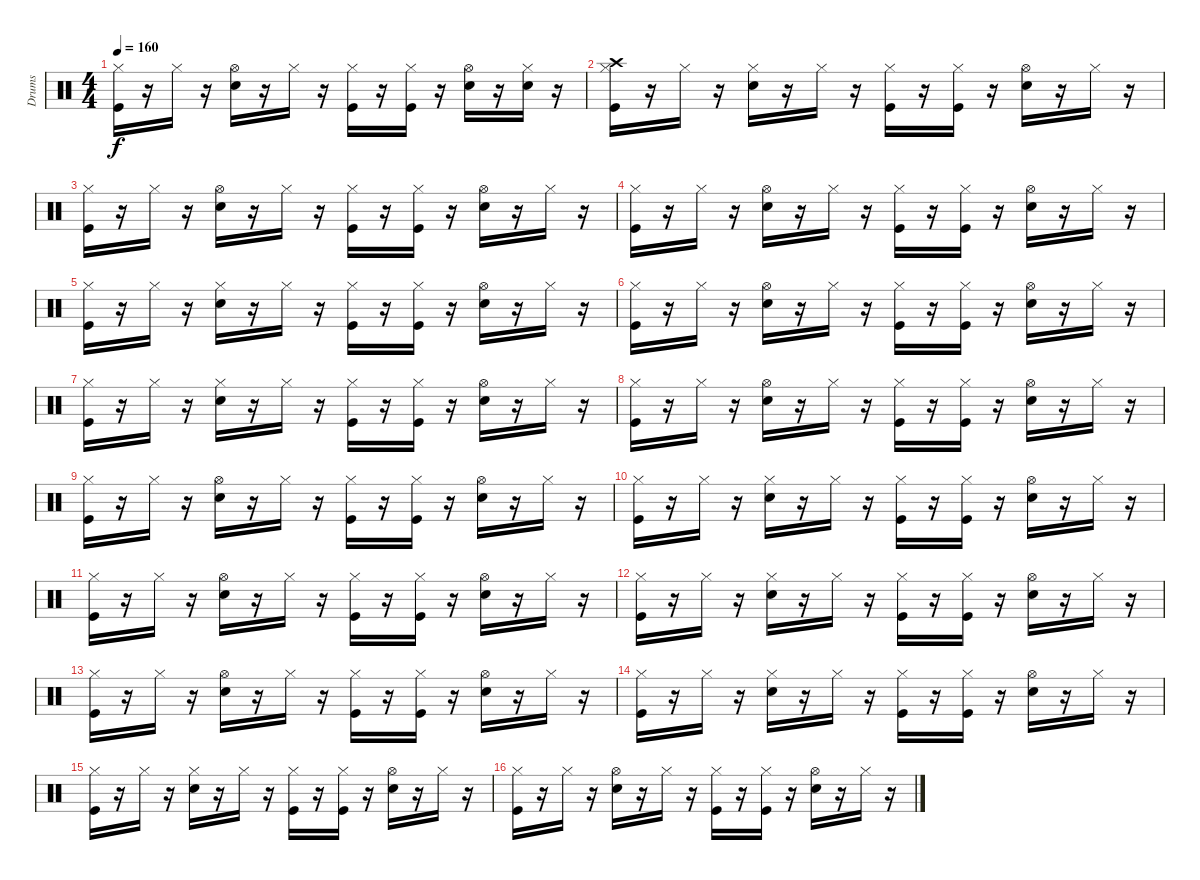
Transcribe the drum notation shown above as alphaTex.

\track ("Drums" "Drums") {instrument percussion}
\staff {score}
\articulation defaults
\ts (4 4)
\tempo 160
\clef neutral
\ks c
("Hi-Hat (closed)" "Kick (hit)").16{dy f} r.16 "Hi-Hat (closed)".16 r.16 ("Hi-Hat (open)" "Snare (hit) 2").16 r.16 "Hi-Hat (closed)".16 r.16 ("Hi-Hat (closed)" "Kick (hit)").16 r.16 ("Kick (hit)" "Hi-Hat (closed)").16 r.16 ("Hi-Hat (open)" "Snare (hit) 2").16 r.16 ("Snare (hit) 2" "Hi-Hat (closed)").16 r.16 |
("Crash high (hit)" "Hi-Hat (closed)" "Kick (hit)").16 r.16 "Hi-Hat (closed)".16 r.16 ("Hi-Hat (closed)" "Snare (hit) 2").16 r.16 "Hi-Hat (closed)".16 r.16 ("Hi-Hat (closed)" "Kick (hit)").16 r.16 ("Kick (hit)" "Hi-Hat (closed)").16 r.16 ("Hi-Hat (open)" "Snare (hit) 2").16 r.16 "Hi-Hat (closed)".16 r.16 |
("Hi-Hat (closed)" "Kick (hit)").16 r.16 "Hi-Hat (closed)".16 r.16 ("Hi-Hat (open)" "Snare (hit) 2").16 r.16 "Hi-Hat (closed)".16 r.16 ("Hi-Hat (closed)" "Kick (hit)").16 r.16 ("Kick (hit)" "Hi-Hat (closed)").16 r.16 ("Hi-Hat (open)" "Snare (hit) 2").16 r.16 "Hi-Hat (closed)".16 r.16 |
("Hi-Hat (closed)" "Kick (hit)").16 r.16 "Hi-Hat (closed)".16 r.16 ("Hi-Hat (open)" "Snare (hit) 2").16 r.16 "Hi-Hat (closed)".16 r.16 ("Hi-Hat (closed)" "Kick (hit)").16 r.16 ("Kick (hit)" "Hi-Hat (closed)").16 r.16 ("Hi-Hat (open)" "Snare (hit) 2").16 r.16 "Hi-Hat (closed)".16 r.16 |
("Hi-Hat (closed)" "Kick (hit)").16 r.16 "Hi-Hat (closed)".16 r.16 ("Hi-Hat (closed)" "Snare (hit) 2").16 r.16 "Hi-Hat (closed)".16 r.16 ("Hi-Hat (closed)" "Kick (hit)").16 r.16 ("Kick (hit)" "Hi-Hat (closed)").16 r.16 ("Hi-Hat (open)" "Snare (hit) 2").16 r.16 "Hi-Hat (closed)".16 r.16 |
("Hi-Hat (closed)" "Kick (hit)").16 r.16 "Hi-Hat (closed)".16 r.16 ("Hi-Hat (open)" "Snare (hit) 2").16 r.16 "Hi-Hat (closed)".16 r.16 ("Hi-Hat (closed)" "Kick (hit)").16 r.16 ("Kick (hit)" "Hi-Hat (closed)").16 r.16 ("Hi-Hat (open)" "Snare (hit) 2").16 r.16 "Hi-Hat (closed)".16 r.16 |
("Hi-Hat (closed)" "Kick (hit)").16 r.16 "Hi-Hat (closed)".16 r.16 ("Hi-Hat (closed)" "Snare (hit) 2").16 r.16 "Hi-Hat (closed)".16 r.16 ("Hi-Hat (closed)" "Kick (hit)").16 r.16 ("Kick (hit)" "Hi-Hat (closed)").16 r.16 ("Hi-Hat (open)" "Snare (hit) 2").16 r.16 "Hi-Hat (closed)".16 r.16 |
("Hi-Hat (closed)" "Kick (hit)").16 r.16 "Hi-Hat (closed)".16 r.16 ("Hi-Hat (open)" "Snare (hit) 2").16 r.16 "Hi-Hat (closed)".16 r.16 ("Hi-Hat (closed)" "Kick (hit)").16 r.16 ("Kick (hit)" "Hi-Hat (closed)").16 r.16 ("Hi-Hat (open)" "Snare (hit) 2").16 r.16 "Hi-Hat (closed)".16 r.16 |
("Hi-Hat (closed)" "Kick (hit)").16 r.16 "Hi-Hat (closed)".16 r.16 ("Hi-Hat (open)" "Snare (hit) 2").16 r.16 "Hi-Hat (closed)".16 r.16 ("Hi-Hat (closed)" "Kick (hit)").16 r.16 ("Kick (hit)" "Hi-Hat (closed)").16 r.16 ("Hi-Hat (open)" "Snare (hit) 2").16 r.16 "Hi-Hat (closed)".16 r.16 |
("Hi-Hat (closed)" "Kick (hit)").16 r.16 "Hi-Hat (closed)".16 r.16 ("Hi-Hat (closed)" "Snare (hit) 2").16 r.16 "Hi-Hat (closed)".16 r.16 ("Hi-Hat (closed)" "Kick (hit)").16 r.16 ("Kick (hit)" "Hi-Hat (closed)").16 r.16 ("Hi-Hat (open)" "Snare (hit) 2").16 r.16 "Hi-Hat (closed)".16 r.16 |
("Hi-Hat (closed)" "Kick (hit)").16 r.16 "Hi-Hat (closed)".16 r.16 ("Hi-Hat (open)" "Snare (hit) 2").16 r.16 "Hi-Hat (closed)".16 r.16 ("Hi-Hat (closed)" "Kick (hit)").16 r.16 ("Kick (hit)" "Hi-Hat (closed)").16 r.16 ("Hi-Hat (open)" "Snare (hit) 2").16 r.16 "Hi-Hat (closed)".16 r.16 |
("Hi-Hat (closed)" "Kick (hit)").16 r.16 "Hi-Hat (closed)".16 r.16 ("Hi-Hat (closed)" "Snare (hit) 2").16 r.16 "Hi-Hat (closed)".16 r.16 ("Hi-Hat (closed)" "Kick (hit)").16 r.16 ("Kick (hit)" "Hi-Hat (closed)").16 r.16 ("Hi-Hat (open)" "Snare (hit) 2").16 r.16 "Hi-Hat (closed)".16 r.16 |
("Hi-Hat (closed)" "Kick (hit)").16 r.16 "Hi-Hat (closed)".16 r.16 ("Hi-Hat (open)" "Snare (hit) 2").16 r.16 "Hi-Hat (closed)".16 r.16 ("Hi-Hat (closed)" "Kick (hit)").16 r.16 ("Kick (hit)" "Hi-Hat (closed)").16 r.16 ("Hi-Hat (open)" "Snare (hit) 2").16 r.16 "Hi-Hat (closed)".16 r.16 |
("Hi-Hat (closed)" "Kick (hit)").16 r.16 "Hi-Hat (closed)".16 r.16 ("Hi-Hat (closed)" "Snare (hit) 2").16 r.16 "Hi-Hat (closed)".16 r.16 ("Hi-Hat (closed)" "Kick (hit)").16 r.16 ("Kick (hit)" "Hi-Hat (closed)").16 r.16 ("Hi-Hat (open)" "Snare (hit) 2").16 r.16 "Hi-Hat (closed)".16 r.16 |
("Hi-Hat (closed)" "Kick (hit)").16 r.16 "Hi-Hat (closed)".16 r.16 ("Hi-Hat (closed)" "Snare (hit) 2").16 r.16 "Hi-Hat (closed)".16 r.16 ("Hi-Hat (closed)" "Kick (hit)").16 r.16 ("Kick (hit)" "Hi-Hat (closed)").16 r.16 ("Hi-Hat (open)" "Snare (hit) 2").16 r.16 "Hi-Hat (closed)".16 r.16 |
("Hi-Hat (closed)" "Kick (hit)").16 r.16 "Hi-Hat (closed)".16 r.16 ("Hi-Hat (open)" "Snare (hit) 2").16 r.16 "Hi-Hat (closed)".16 r.16 ("Hi-Hat (closed)" "Kick (hit)").16 r.16 ("Kick (hit)" "Hi-Hat (closed)").16 r.16 ("Hi-Hat (open)" "Snare (hit) 2").16 r.16 "Hi-Hat (closed)".16 r.16
